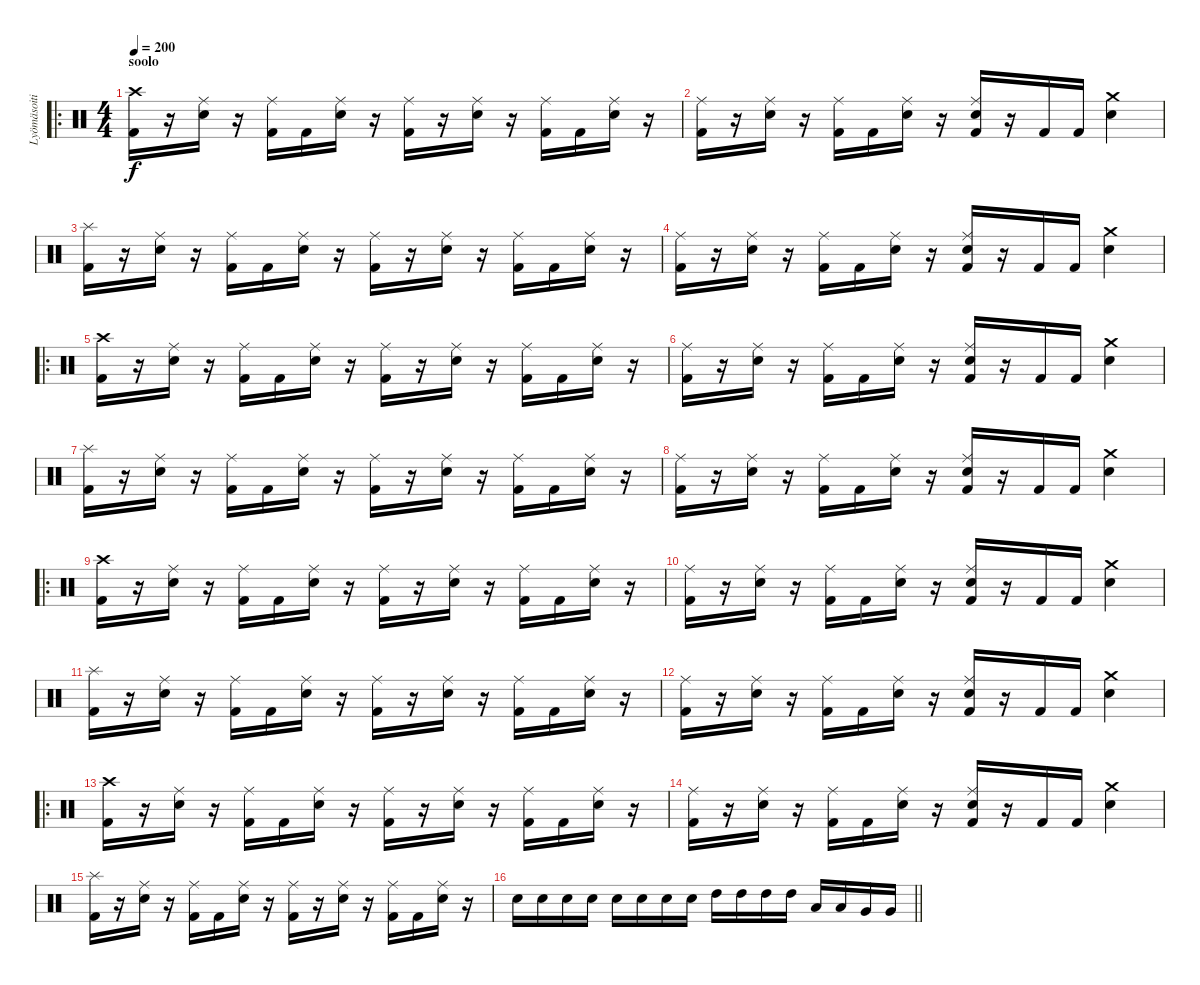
\track ("Lyömäsoitin" "Lyömäsoiti") {instrument percussion}
\staff {score}
\articulation defaults
\ro
\ts (4 4)
\section ("" "soolo")
\tempo 200
\clef neutral
\ks c
("Crash high (hit)" "Kick (hit) 2").16{dy f} r.16 ("Ride (middle)" "Electric Snare (hit)").16 r.16 ("Ride (middle)" "Kick (hit) 2").16 "Kick (hit) 2".16 ("Ride (middle)" "Electric Snare (hit)").16 r.16 ("Ride (middle)" "Kick (hit) 2").16 r.16 ("Ride (middle)" "Electric Snare (hit)").16 r.16 ("Ride (middle)" "Kick (hit) 2").16 "Kick (hit) 2".16 ("Ride (middle)" "Electric Snare (hit)").16 r.16 |
("Ride (middle)" "Kick (hit) 2").16 r.16 ("Ride (middle)" "Electric Snare (hit)").16 r.16 ("Ride (middle)" "Kick (hit) 2").16 "Kick (hit) 2".16 ("Ride (middle)" "Electric Snare (hit)").16 r.16 ("Ride (middle)" "Electric Snare (hit)" "Kick (hit) 2").16 r.16 "Kick (hit) 2".16 "Kick (hit) 2".16 ("Crash medium (hit)" "Electric Snare (hit)").4 |
("Splash (hit)" "Kick (hit) 2").16 r.16 ("Ride (middle)" "Electric Snare (hit)").16 r.16 ("Ride (middle)" "Kick (hit) 2").16 "Kick (hit) 2".16 ("Ride (middle)" "Electric Snare (hit)").16 r.16 ("Ride (middle)" "Kick (hit) 2").16 r.16 ("Ride (middle)" "Electric Snare (hit)").16 r.16 ("Ride (middle)" "Kick (hit) 2").16 "Kick (hit) 2".16 ("Ride (middle)" "Electric Snare (hit)").16 r.16 |
("Ride (middle)" "Kick (hit) 2").16 r.16 ("Ride (middle)" "Electric Snare (hit)").16 r.16 ("Ride (middle)" "Kick (hit) 2").16 "Kick (hit) 2".16 ("Ride (middle)" "Electric Snare (hit)").16 r.16 ("Ride (middle)" "Electric Snare (hit)" "Kick (hit) 2").16 r.16 "Kick (hit) 2".16 "Kick (hit) 2".16 ("Crash medium (hit)" "Electric Snare (hit)").4 |
\ro
("Crash high (hit)" "Kick (hit) 2").16 r.16 ("Ride (middle)" "Electric Snare (hit)").16 r.16 ("Ride (middle)" "Kick (hit) 2").16 "Kick (hit) 2".16 ("Ride (middle)" "Electric Snare (hit)").16 r.16 ("Ride (middle)" "Kick (hit) 2").16 r.16 ("Ride (middle)" "Electric Snare (hit)").16 r.16 ("Ride (middle)" "Kick (hit) 2").16 "Kick (hit) 2".16 ("Ride (middle)" "Electric Snare (hit)").16 r.16 |
("Ride (middle)" "Kick (hit) 2").16 r.16 ("Ride (middle)" "Electric Snare (hit)").16 r.16 ("Ride (middle)" "Kick (hit) 2").16 "Kick (hit) 2".16 ("Ride (middle)" "Electric Snare (hit)").16 r.16 ("Ride (middle)" "Electric Snare (hit)" "Kick (hit) 2").16 r.16 "Kick (hit) 2".16 "Kick (hit) 2".16 ("Crash medium (hit)" "Electric Snare (hit)").4 |
("Splash (hit)" "Kick (hit) 2").16 r.16 ("Ride (middle)" "Electric Snare (hit)").16 r.16 ("Ride (middle)" "Kick (hit) 2").16 "Kick (hit) 2".16 ("Ride (middle)" "Electric Snare (hit)").16 r.16 ("Ride (middle)" "Kick (hit) 2").16 r.16 ("Ride (middle)" "Electric Snare (hit)").16 r.16 ("Ride (middle)" "Kick (hit) 2").16 "Kick (hit) 2".16 ("Ride (middle)" "Electric Snare (hit)").16 r.16 |
("Ride (middle)" "Kick (hit) 2").16 r.16 ("Ride (middle)" "Electric Snare (hit)").16 r.16 ("Ride (middle)" "Kick (hit) 2").16 "Kick (hit) 2".16 ("Ride (middle)" "Electric Snare (hit)").16 r.16 ("Ride (middle)" "Electric Snare (hit)" "Kick (hit) 2").16 r.16 "Kick (hit) 2".16 "Kick (hit) 2".16 ("Crash medium (hit)" "Electric Snare (hit)").4 |
\ro
("Crash high (hit)" "Kick (hit) 2").16 r.16 ("Ride (middle)" "Electric Snare (hit)").16 r.16 ("Ride (middle)" "Kick (hit) 2").16 "Kick (hit) 2".16 ("Ride (middle)" "Electric Snare (hit)").16 r.16 ("Ride (middle)" "Kick (hit) 2").16 r.16 ("Ride (middle)" "Electric Snare (hit)").16 r.16 ("Ride (middle)" "Kick (hit) 2").16 "Kick (hit) 2".16 ("Ride (middle)" "Electric Snare (hit)").16 r.16 |
("Ride (middle)" "Kick (hit) 2").16 r.16 ("Ride (middle)" "Electric Snare (hit)").16 r.16 ("Ride (middle)" "Kick (hit) 2").16 "Kick (hit) 2".16 ("Ride (middle)" "Electric Snare (hit)").16 r.16 ("Ride (middle)" "Electric Snare (hit)" "Kick (hit) 2").16 r.16 "Kick (hit) 2".16 "Kick (hit) 2".16 ("Crash medium (hit)" "Electric Snare (hit)").4 |
("Splash (hit)" "Kick (hit) 2").16 r.16 ("Ride (middle)" "Electric Snare (hit)").16 r.16 ("Ride (middle)" "Kick (hit) 2").16 "Kick (hit) 2".16 ("Ride (middle)" "Electric Snare (hit)").16 r.16 ("Ride (middle)" "Kick (hit) 2").16 r.16 ("Ride (middle)" "Electric Snare (hit)").16 r.16 ("Ride (middle)" "Kick (hit) 2").16 "Kick (hit) 2".16 ("Ride (middle)" "Electric Snare (hit)").16 r.16 |
("Ride (middle)" "Kick (hit) 2").16 r.16 ("Ride (middle)" "Electric Snare (hit)").16 r.16 ("Ride (middle)" "Kick (hit) 2").16 "Kick (hit) 2".16 ("Ride (middle)" "Electric Snare (hit)").16 r.16 ("Ride (middle)" "Electric Snare (hit)" "Kick (hit) 2").16 r.16 "Kick (hit) 2".16 "Kick (hit) 2".16 ("Crash medium (hit)" "Electric Snare (hit)").4 |
\ro
("Crash high (hit)" "Kick (hit) 2").16 r.16 ("Ride (middle)" "Electric Snare (hit)").16 r.16 ("Ride (middle)" "Kick (hit) 2").16 "Kick (hit) 2".16 ("Ride (middle)" "Electric Snare (hit)").16 r.16 ("Ride (middle)" "Kick (hit) 2").16 r.16 ("Ride (middle)" "Electric Snare (hit)").16 r.16 ("Ride (middle)" "Kick (hit) 2").16 "Kick (hit) 2".16 ("Ride (middle)" "Electric Snare (hit)").16 r.16 |
("Ride (middle)" "Kick (hit) 2").16 r.16 ("Ride (middle)" "Electric Snare (hit)").16 r.16 ("Ride (middle)" "Kick (hit) 2").16 "Kick (hit) 2".16 ("Ride (middle)" "Electric Snare (hit)").16 r.16 ("Ride (middle)" "Electric Snare (hit)" "Kick (hit) 2").16 r.16 "Kick (hit) 2".16 "Kick (hit) 2".16 ("Crash medium (hit)" "Electric Snare (hit)").4 |
("Splash (hit)" "Kick (hit) 2").16 r.16 ("Ride (middle)" "Electric Snare (hit)").16 r.16 ("Ride (middle)" "Kick (hit) 2").16 "Kick (hit) 2".16 ("Ride (middle)" "Electric Snare (hit)").16 r.16 ("Ride (middle)" "Kick (hit) 2").16 r.16 ("Ride (middle)" "Electric Snare (hit)").16 r.16 ("Ride (middle)" "Kick (hit) 2").16 "Kick (hit) 2".16 ("Ride (middle)" "Electric Snare (hit)").16 r.16 |
\barLineRight lightlight "Electric Snare (hit)".16 "Electric Snare (hit)".16 "Electric Snare (hit)".16 "Electric Snare (hit)".16 "Electric Snare (hit)".16 "Electric Snare (hit)".16 "Electric Snare (hit)".16 "Electric Snare (hit)".16 "High Tom (hit)".16 "High Tom (hit)".16 "High Tom (hit)".16 "High Tom (hit)".16 "Low Tom (hit)".16 "Low Tom (hit)".16 "Very Low Tom (hit)".16 "Very Low Tom (hit)".16
